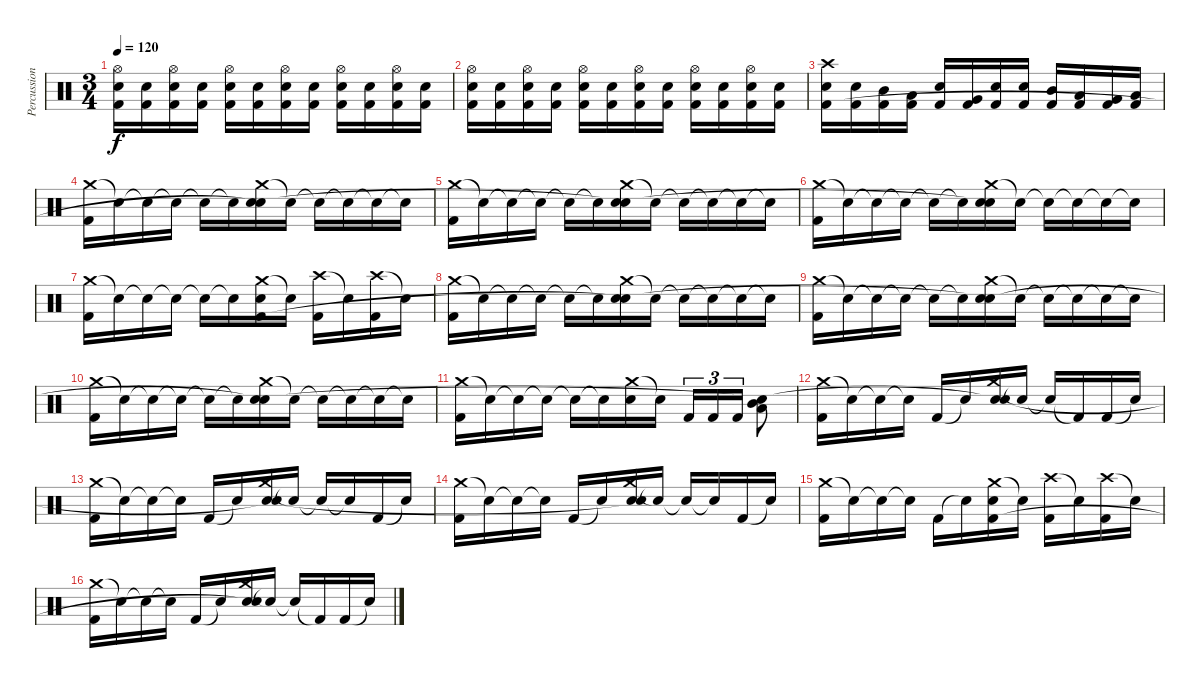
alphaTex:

\track ("Percussions" "Percussion") {instrument percussion}
\staff {score}
\articulation defaults
\ts (3 4)
\tempo 120
\clef neutral
\ks c
("Hi-Hat (open)" "Electric Snare (hit)" "Kick (hit) 2").16{dy f} ("Electric Snare (hit)" "Kick (hit) 2").16 ("Hi-Hat (open)" "Electric Snare (hit)" "Kick (hit) 2").16 ("Electric Snare (hit)" "Kick (hit) 2").16 ("Hi-Hat (open)" "Electric Snare (hit)" "Kick (hit) 2").16 ("Electric Snare (hit)" "Kick (hit) 2").16 ("Hi-Hat (open)" "Electric Snare (hit)" "Kick (hit) 2").16 ("Electric Snare (hit)" "Kick (hit) 2").16 ("Hi-Hat (open)" "Electric Snare (hit)" "Kick (hit) 2").16 ("Electric Snare (hit)" "Kick (hit) 2").16 ("Hi-Hat (open)" "Electric Snare (hit)" "Kick (hit) 2").16 ("Electric Snare (hit)" "Kick (hit) 2").16 |
("Hi-Hat (open)" "Electric Snare (hit)" "Kick (hit) 2").16 ("Electric Snare (hit)" "Kick (hit) 2").16 ("Hi-Hat (open)" "Electric Snare (hit)" "Kick (hit) 2").16 ("Electric Snare (hit)" "Kick (hit) 2").16 ("Hi-Hat (open)" "Electric Snare (hit)" "Kick (hit) 2").16 ("Electric Snare (hit)" "Kick (hit) 2").16 ("Hi-Hat (open)" "Electric Snare (hit)" "Kick (hit) 2").16 ("Electric Snare (hit)" "Kick (hit) 2").16 ("Hi-Hat (open)" "Electric Snare (hit)" "Kick (hit) 2").16 ("Electric Snare (hit)" "Kick (hit) 2").16 ("Hi-Hat (open)" "Electric Snare (hit)" "Kick (hit) 2").16 ("Electric Snare (hit)" "Kick (hit) 2").16 |
("Crash high (hit)" "Electric Snare (hit)" "Kick (hit) 2").16 ("Electric Snare (hit)" "Kick (hit) 2").16 ("Mid Tom (hit)" "Kick (hit) 2").16 ("Low Tom (hit)" "Kick (hit) 2").16 ("Electric Snare (hit)" "Kick (hit) 2").16 ("Very Low Tom (hit)" "Kick (hit) 2").16 ("Electric Snare (hit)" "Kick (hit) 2").16 ("Electric Snare (hit)" "Kick (hit) 2").16 ("Mid Tom (hit)" "Kick (hit) 2").16 ("Low Tom (hit)" "Kick (hit) 2").16 ("Very Low Tom (hit)" "Kick (hit) 2").16 ("Low Floor Tom (hit)" "Kick (hit) 2").16 |
("Crash medium (hit)" "Kick (hit) 2").16 "Snare (hit)"{t}.16 "Snare (hit)"{t}.16 "Snare (hit)"{t}.16 "Snare (hit)"{t}.16 "Snare (hit)"{t}.16 ("Crash medium (hit)" "Electric Snare (hit)" "Snare (hit)"{t}).16 "Snare (hit)"{t}.16 "Snare (hit)"{t}.16 "Snare (hit)"{t}.16 "Snare (hit)"{t}.16 "Snare (hit)"{t}.16 |
("Crash medium (hit)" "Kick (hit) 2").16 "Snare (hit)"{t}.16 "Snare (hit)"{t}.16 "Snare (hit)"{t}.16 "Snare (hit)"{t}.16 "Snare (hit)"{t}.16 ("Crash medium (hit)" "Electric Snare (hit)" "Snare (hit)"{t}).16 "Snare (hit)"{t}.16 "Snare (hit)"{t}.16 "Snare (hit)"{t}.16 "Snare (hit)"{t}.16 "Snare (hit)"{t}.16 |
("Crash medium (hit)" "Kick (hit) 2").16 "Snare (hit)"{t}.16 "Snare (hit)"{t}.16 "Snare (hit)"{t}.16 "Snare (hit)"{t}.16 "Snare (hit)"{t}.16 ("Crash medium (hit)" "Electric Snare (hit)" "Snare (hit)"{t}).16 "Snare (hit)"{t}.16 "Snare (hit)"{t}.16 "Snare (hit)"{t}.16 "Snare (hit)"{t}.16 "Snare (hit)"{t}.16 |
("Crash medium (hit)" "Kick (hit) 2").16 "Snare (hit)"{t}.16 "Snare (hit)"{t}.16 "Snare (hit)"{t}.16 "Snare (hit)"{t}.16 "Snare (hit)"{t}.16 ("Crash medium (hit)" "Electric Snare (hit)" "Kick (hit) 2").16 "Snare (hit)"{t}.16 ("Crash high (hit)" "Kick (hit) 2").16 "Snare (hit)"{t}.16 ("Crash high (hit)" "Kick (hit) 2").16 "Snare (hit)"{t}.16 |
("Crash medium (hit)" "Kick (hit) 2").16 "Snare (hit)"{t}.16 "Snare (hit)"{t}.16 "Snare (hit)"{t}.16 "Snare (hit)"{t}.16 "Snare (hit)"{t}.16 ("Crash medium (hit)" "Electric Snare (hit)" "Snare (hit)"{t}).16 "Snare (hit)"{t}.16 "Snare (hit)"{t}.16 "Snare (hit)"{t}.16 "Snare (hit)"{t}.16 "Snare (hit)"{t}.16 |
("Crash medium (hit)" "Kick (hit) 2").16 "Snare (hit)"{t}.16 "Snare (hit)"{t}.16 "Snare (hit)"{t}.16 "Snare (hit)"{t}.16 "Snare (hit)"{t}.16 ("Crash medium (hit)" "Electric Snare (hit)" "Snare (hit)"{t}).16 "Snare (hit)"{t}.16 "Snare (hit)"{t}.16 "Snare (hit)"{t}.16 "Snare (hit)"{t}.16 "Snare (hit)"{t}.16 |
("Crash medium (hit)" "Kick (hit) 2").16 "Snare (hit)"{t}.16 "Snare (hit)"{t}.16 "Snare (hit)"{t}.16 "Snare (hit)"{t}.16 "Snare (hit)"{t}.16 ("Crash medium (hit)" "Electric Snare (hit)" "Snare (hit)"{t}).16 "Snare (hit)"{t}.16 "Snare (hit)"{t}.16 "Snare (hit)"{t}.16 "Snare (hit)"{t}.16 "Snare (hit)"{t}.16 |
("Crash medium (hit)" "Kick (hit) 2").16 "Snare (hit)"{t}.16 "Snare (hit)"{t}.16 "Snare (hit)"{t}.16 "Snare (hit)"{t}.16 "Snare (hit)"{t}.16 ("Crash medium (hit)" "Electric Snare (hit)").16 "Snare (hit)"{t}.16 "Kick (hit) 2".16{tu (3 2)} "Kick (hit) 2".16{tu (3 2)} "Kick (hit) 2".16{tu (3 2)} ("Mid Tom (hit)" "Low Tom (hit)" "Snare (hit)"{t}).8 |
("Crash medium (hit)" "Kick (hit) 2").16 "Snare (hit)"{t}.16 "Snare (hit)"{t}.16 "Snare (hit)"{t}.16 "Kick (hit) 2".16 "Snare (hit)"{t}.16 ("Crash medium (hit)" "Electric Snare (hit)" "Snare (hit)"{t}).16 "Snare (hit)"{t}.16 "Snare (hit)"{t}.16 "Kick (hit) 2"{t}.16 "Kick (hit) 2".16 "Snare (hit)"{t}.16 |
("Crash medium (hit)" "Kick (hit) 2").16 "Snare (hit)"{t}.16 "Snare (hit)"{t}.16 "Snare (hit)"{t}.16 "Kick (hit) 2".16 "Snare (hit)"{t}.16 ("Crash medium (hit)" "Electric Snare (hit)" "Snare (hit)"{t}).16 "Snare (hit)"{t}.16 "Snare (hit)"{t}.16 "Snare (hit)"{t}.16 "Kick (hit) 2".16 "Snare (hit)"{t}.16 |
("Crash medium (hit)" "Kick (hit) 2").16 "Snare (hit)"{t}.16 "Snare (hit)"{t}.16 "Snare (hit)"{t}.16 "Kick (hit) 2".16 "Snare (hit)"{t}.16 ("Crash medium (hit)" "Electric Snare (hit)" "Snare (hit)"{t}).16 "Snare (hit)"{t}.16 "Snare (hit)"{t}.16 "Snare (hit)"{t}.16 "Kick (hit) 2".16 "Snare (hit)"{t}.16 |
("Crash medium (hit)" "Kick (hit) 2").16 "Snare (hit)"{t}.16 "Snare (hit)"{t}.16 "Snare (hit)"{t}.16 "Kick (hit) 2".16 "Snare (hit)"{t}.16 ("Crash medium (hit)" "Electric Snare (hit)" "Kick (hit) 2").16 "Snare (hit)"{t}.16 ("Crash high (hit)" "Kick (hit) 2").16 "Snare (hit)"{t}.16 ("Crash high (hit)" "Kick (hit) 2").16 "Snare (hit)"{t}.16 |
("Crash medium (hit)" "Kick (hit) 2").16 "Snare (hit)"{t}.16 "Snare (hit)"{t}.16 "Snare (hit)"{t}.16 "Kick (hit) 2".16 "Snare (hit)"{t}.16 ("Crash medium (hit)" "Electric Snare (hit)" "Snare (hit)"{t}).16 "Snare (hit)"{t}.16 "Snare (hit)"{t}.16 "Kick (hit) 2"{t}.16 "Kick (hit) 2".16 "Snare (hit)"{t}.16
